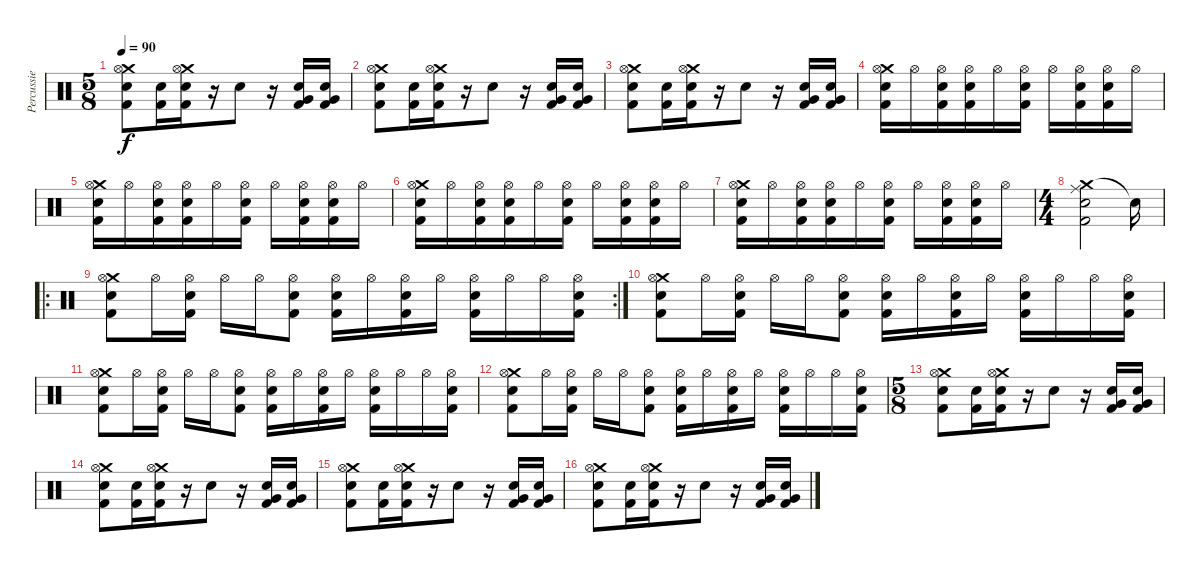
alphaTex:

\track ("Percussie" "Percussie") {instrument percussion}
\staff {score}
\articulation defaults
\ts (5 8)
\tempo 90
\clef neutral
\ks c
("Crash medium (hit)" "Hi-Hat (open)" "Snare (hit) 2" "Kick (hit) 2").8{dy f} ("Snare (hit) 2" "Kick (hit) 2").16 ("Crash medium (hit)" "Hi-Hat (open)" "Snare (hit) 2" "Kick (hit) 2").16 r.16 "Snare (hit) 2".8 r.16 ("Very Low Tom (hit)" "Snare (hit) 2" "Kick (hit) 2").16 ("Very Low Tom (hit)" "Snare (hit) 2" "Kick (hit) 2").16 |
("Crash medium (hit)" "Hi-Hat (open)" "Snare (hit) 2" "Kick (hit) 2").8 ("Snare (hit) 2" "Kick (hit) 2").16 ("Crash medium (hit)" "Hi-Hat (open)" "Snare (hit) 2" "Kick (hit) 2").16 r.16 "Snare (hit) 2".8 r.16 ("Very Low Tom (hit)" "Snare (hit) 2" "Kick (hit) 2").16 ("Very Low Tom (hit)" "Snare (hit) 2" "Kick (hit) 2").16 |
("Crash medium (hit)" "Hi-Hat (open)" "Snare (hit) 2" "Kick (hit) 2").8 ("Snare (hit) 2" "Kick (hit) 2").16 ("Crash medium (hit)" "Hi-Hat (open)" "Snare (hit) 2" "Kick (hit) 2").16 r.16 "Snare (hit) 2".8 r.16 ("Very Low Tom (hit)" "Snare (hit) 2" "Kick (hit) 2").16 ("Very Low Tom (hit)" "Snare (hit) 2" "Kick (hit) 2").16 |
("Crash medium (hit)" "Hi-Hat (open)" "Snare (hit) 2" "Kick (hit) 2").16 "Hi-Hat (open)".16 ("Hi-Hat (open)" "Snare (hit) 2" "Kick (hit) 2").16 ("Hi-Hat (open)" "Snare (hit) 2" "Kick (hit) 2").16 "Hi-Hat (open)".16 ("Hi-Hat (open)" "Snare (hit) 2" "Kick (hit) 2").16 "Hi-Hat (open)".16 ("Hi-Hat (open)" "Snare (hit) 2" "Kick (hit) 2").16 ("Hi-Hat (open)" "Snare (hit) 2" "Kick (hit) 2").16 "Hi-Hat (open)".16 |
("Crash medium (hit)" "Hi-Hat (open)" "Snare (hit) 2" "Kick (hit) 2").16 "Hi-Hat (open)".16 ("Hi-Hat (open)" "Snare (hit) 2" "Kick (hit) 2").16 ("Hi-Hat (open)" "Snare (hit) 2" "Kick (hit) 2").16 "Hi-Hat (open)".16 ("Hi-Hat (open)" "Snare (hit) 2" "Kick (hit) 2").16 "Hi-Hat (open)".16 ("Hi-Hat (open)" "Snare (hit) 2" "Kick (hit) 2").16 ("Hi-Hat (open)" "Snare (hit) 2" "Kick (hit) 2").16 "Hi-Hat (open)".16 |
("Crash medium (hit)" "Hi-Hat (open)" "Snare (hit) 2" "Kick (hit) 2").16 "Hi-Hat (open)".16 ("Hi-Hat (open)" "Snare (hit) 2" "Kick (hit) 2").16 ("Hi-Hat (open)" "Snare (hit) 2" "Kick (hit) 2").16 "Hi-Hat (open)".16 ("Hi-Hat (open)" "Snare (hit) 2" "Kick (hit) 2").16 "Hi-Hat (open)".16 ("Hi-Hat (open)" "Snare (hit) 2" "Kick (hit) 2").16 ("Hi-Hat (open)" "Snare (hit) 2" "Kick (hit) 2").16 "Hi-Hat (open)".16 |
("Crash medium (hit)" "Hi-Hat (open)" "Snare (hit) 2" "Kick (hit) 2").16 "Hi-Hat (open)".16 ("Hi-Hat (open)" "Snare (hit) 2" "Kick (hit) 2").16 ("Hi-Hat (open)" "Snare (hit) 2" "Kick (hit) 2").16 "Hi-Hat (open)".16 ("Hi-Hat (open)" "Snare (hit) 2" "Kick (hit) 2").16 "Hi-Hat (open)".16 ("Hi-Hat (open)" "Snare (hit) 2" "Kick (hit) 2").16 ("Hi-Hat (open)" "Snare (hit) 2" "Kick (hit) 2").16 "Hi-Hat (open)".16 |
\ts (4 4)
("Crash medium (hit)" "Ride (middle)" "Snare (hit) 2" "Kick (hit) 2").2 "Snare (hit)"{t}.16 |
\ro
\rc 2
("Crash medium (hit)" "Hi-Hat (open)" "Snare (hit) 2" "Kick (hit) 2").8 "Hi-Hat (open)".16 ("Hi-Hat (open)" "Snare (hit) 2" "Kick (hit) 2").16 "Hi-Hat (open)".16 "Hi-Hat (open)".16 ("Hi-Hat (open)" "Snare (hit) 2" "Kick (hit) 2").8 ("Hi-Hat (open)" "Snare (hit) 2" "Kick (hit) 2").16 "Hi-Hat (open)".16 ("Hi-Hat (open)" "Snare (hit) 2" "Kick (hit) 2").16 "Hi-Hat (open)".16 ("Hi-Hat (open)" "Snare (hit) 2" "Kick (hit) 2").16 "Hi-Hat (open)".16 "Hi-Hat (open)".16 ("Hi-Hat (open)" "Snare (hit) 2" "Kick (hit) 2").16 |
("Crash medium (hit)" "Hi-Hat (open)" "Snare (hit) 2" "Kick (hit) 2").8 "Hi-Hat (open)".16 ("Hi-Hat (open)" "Snare (hit) 2" "Kick (hit) 2").16 "Hi-Hat (open)".16 "Hi-Hat (open)".16 ("Hi-Hat (open)" "Snare (hit) 2" "Kick (hit) 2").8 ("Hi-Hat (open)" "Snare (hit) 2" "Kick (hit) 2").16 "Hi-Hat (open)".16 ("Hi-Hat (open)" "Snare (hit) 2" "Kick (hit) 2").16 "Hi-Hat (open)".16 ("Hi-Hat (open)" "Snare (hit) 2" "Kick (hit) 2").16 "Hi-Hat (open)".16 "Hi-Hat (open)".16 ("Hi-Hat (open)" "Snare (hit) 2" "Kick (hit) 2").16 |
("Crash medium (hit)" "Hi-Hat (open)" "Snare (hit) 2" "Kick (hit) 2").8 "Hi-Hat (open)".16 ("Hi-Hat (open)" "Snare (hit) 2" "Kick (hit) 2").16 "Hi-Hat (open)".16 "Hi-Hat (open)".16 ("Hi-Hat (open)" "Snare (hit) 2" "Kick (hit) 2").8 ("Hi-Hat (open)" "Snare (hit) 2" "Kick (hit) 2").16 "Hi-Hat (open)".16 ("Hi-Hat (open)" "Snare (hit) 2" "Kick (hit) 2").16 "Hi-Hat (open)".16 ("Hi-Hat (open)" "Snare (hit) 2" "Kick (hit) 2").16 "Hi-Hat (open)".16 "Hi-Hat (open)".16 ("Hi-Hat (open)" "Snare (hit) 2" "Kick (hit) 2").16 |
("Crash medium (hit)" "Hi-Hat (open)" "Snare (hit) 2" "Kick (hit) 2").8 "Hi-Hat (open)".16 ("Hi-Hat (open)" "Snare (hit) 2" "Kick (hit) 2").16 "Hi-Hat (open)".16 "Hi-Hat (open)".16 ("Hi-Hat (open)" "Snare (hit) 2" "Kick (hit) 2").8 ("Hi-Hat (open)" "Snare (hit) 2" "Kick (hit) 2").16 "Hi-Hat (open)".16 ("Hi-Hat (open)" "Snare (hit) 2" "Kick (hit) 2").16 "Hi-Hat (open)".16 ("Hi-Hat (open)" "Snare (hit) 2" "Kick (hit) 2").16 "Hi-Hat (open)".16 "Hi-Hat (open)".16 ("Hi-Hat (open)" "Snare (hit) 2" "Kick (hit) 2").16 |
\ts (5 8)
("Crash medium (hit)" "Hi-Hat (open)" "Snare (hit) 2" "Kick (hit) 2").8 ("Snare (hit) 2" "Kick (hit) 2").16 ("Crash medium (hit)" "Hi-Hat (open)" "Snare (hit) 2" "Kick (hit) 2").16 r.16 "Snare (hit) 2".8 r.16 ("Very Low Tom (hit)" "Snare (hit) 2" "Kick (hit) 2").16 ("Very Low Tom (hit)" "Snare (hit) 2" "Kick (hit) 2").16 |
("Crash medium (hit)" "Hi-Hat (open)" "Snare (hit) 2" "Kick (hit) 2").8 ("Snare (hit) 2" "Kick (hit) 2").16 ("Crash medium (hit)" "Hi-Hat (open)" "Snare (hit) 2" "Kick (hit) 2").16 r.16 "Snare (hit) 2".8 r.16 ("Very Low Tom (hit)" "Snare (hit) 2" "Kick (hit) 2").16 ("Very Low Tom (hit)" "Snare (hit) 2" "Kick (hit) 2").16 |
("Crash medium (hit)" "Hi-Hat (open)" "Snare (hit) 2" "Kick (hit) 2").8 ("Snare (hit) 2" "Kick (hit) 2").16 ("Crash medium (hit)" "Hi-Hat (open)" "Snare (hit) 2" "Kick (hit) 2").16 r.16 "Snare (hit) 2".8 r.16 ("Very Low Tom (hit)" "Snare (hit) 2" "Kick (hit) 2").16 ("Very Low Tom (hit)" "Snare (hit) 2" "Kick (hit) 2").16 |
("Crash medium (hit)" "Hi-Hat (open)" "Snare (hit) 2" "Kick (hit) 2").8 ("Snare (hit) 2" "Kick (hit) 2").16 ("Crash medium (hit)" "Hi-Hat (open)" "Snare (hit) 2" "Kick (hit) 2").16 r.16 "Snare (hit) 2".8 r.16 ("Very Low Tom (hit)" "Snare (hit) 2" "Kick (hit) 2").16 ("Very Low Tom (hit)" "Snare (hit) 2" "Kick (hit) 2").16
